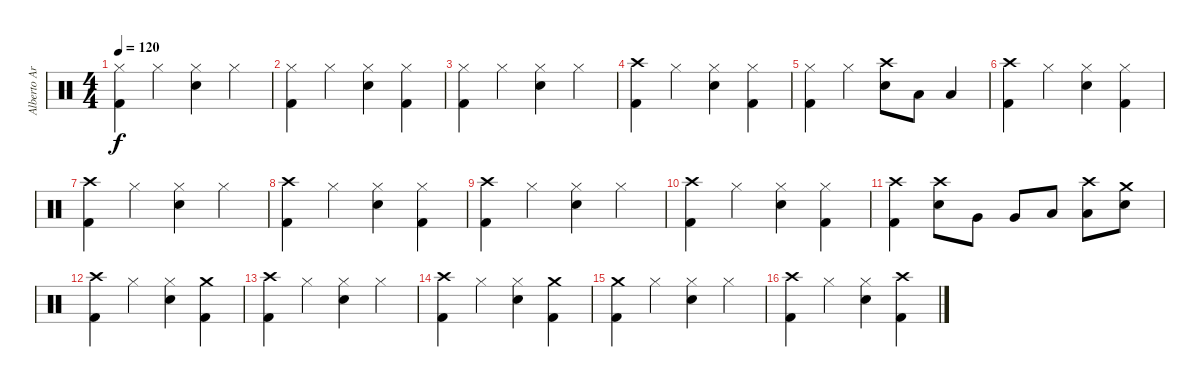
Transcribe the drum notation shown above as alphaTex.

\track ("Alberto Ardines (Batería)" "Alberto Ar") {instrument percussion}
\staff {score}
\articulation defaults
\ts (4 4)
\tempo 120
\clef neutral
\ks c
("Hi-Hat (closed)" "Kick (hit) 2").4{dy f} "Hi-Hat (closed)".4 ("Hi-Hat (closed)" "Electric Snare (hit)").4 "Hi-Hat (closed)".4 |
("Hi-Hat (closed)" "Kick (hit) 2").4 "Hi-Hat (closed)".4 ("Hi-Hat (closed)" "Electric Snare (hit)").4 ("Hi-Hat (closed)" "Kick (hit) 2").4 |
("Hi-Hat (closed)" "Kick (hit) 2").4 "Hi-Hat (closed)".4 ("Hi-Hat (closed)" "Electric Snare (hit)").4 "Hi-Hat (closed)".4 |
("Crash high (hit)" "Kick (hit) 2").4 "Hi-Hat (closed)".4 ("Hi-Hat (closed)" "Electric Snare (hit)").4 ("Hi-Hat (closed)" "Kick (hit) 2").4 |
("Hi-Hat (closed)" "Kick (hit) 2").4 "Hi-Hat (closed)".4 ("Crash high (hit)" "Electric Snare (hit)").8 "Low Floor Tom (hit)".8 "Low Floor Tom (hit)".4 |
("Crash high (hit)" "Kick (hit) 2").4 "Hi-Hat (closed)".4 ("Hi-Hat (closed)" "Electric Snare (hit)").4 ("Hi-Hat (closed)" "Kick (hit) 2").4 |
("Crash high (hit)" "Kick (hit) 2").4 "Hi-Hat (closed)".4 ("Hi-Hat (closed)" "Electric Snare (hit)").4 "Hi-Hat (closed)".4 |
("Crash high (hit)" "Kick (hit) 2").4 "Hi-Hat (closed)".4 ("Hi-Hat (closed)" "Electric Snare (hit)").4 ("Hi-Hat (closed)" "Kick (hit) 2").4 |
("Crash high (hit)" "Kick (hit) 2").4 "Hi-Hat (closed)".4 ("Hi-Hat (closed)" "Electric Snare (hit)").4 "Hi-Hat (closed)".4 |
("Crash high (hit)" "Kick (hit) 2").4 "Hi-Hat (closed)".4 ("Hi-Hat (closed)" "Electric Snare (hit)").4 ("Hi-Hat (closed)" "Kick (hit) 2").4 |
("Crash high (hit)" "Kick (hit) 2").4 ("Crash high (hit)" "Electric Snare (hit)").8 "Very Low Tom (hit)".8 "Very Low Tom (hit)".8 "Low Floor Tom (hit)".8 ("Low Floor Tom (hit)" "Crash high (hit)").8 ("Crash medium (hit)" "Electric Snare (hit)").8 |
("Crash high (hit)" "Kick (hit) 2").4 "Hi-Hat (closed)".4 ("Hi-Hat (closed)" "Electric Snare (hit)").4 ("Crash medium (hit)" "Kick (hit) 2").4 |
("Crash high (hit)" "Kick (hit) 2").4 "Hi-Hat (closed)".4 ("Hi-Hat (closed)" "Electric Snare (hit)").4 "Hi-Hat (closed)".4 |
("Crash high (hit)" "Kick (hit) 2").4 "Hi-Hat (closed)".4 ("Hi-Hat (closed)" "Electric Snare (hit)").4 ("Crash medium (hit)" "Kick (hit) 2").4 |
("Crash medium (hit)" "Kick (hit) 2").4 "Hi-Hat (closed)".4 ("Hi-Hat (closed)" "Electric Snare (hit)").4 "Hi-Hat (closed)".4 |
("Crash high (hit)" "Kick (hit) 2").4 "Hi-Hat (closed)".4 ("Hi-Hat (closed)" "Electric Snare (hit)").4 ("Crash high (hit)" "Kick (hit) 2").4
